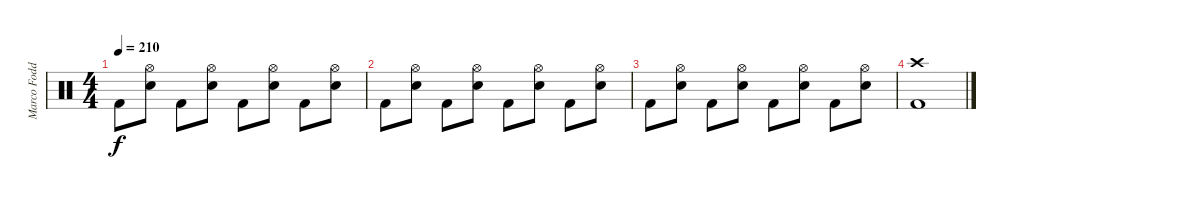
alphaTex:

\track ("Marco Foddis " "Marco Fodd") {instrument percussion}
\staff {score}
\articulation defaults
\ts (4 4)
\tempo 210
\clef neutral
\ks c "Kick (hit) 2".8{dy f}
("Hi-Hat (open)" "Electric Snare (hit)").8 "Kick (hit) 2".8 ("Hi-Hat (open)" "Electric Snare (hit)").8 "Kick (hit) 2".8 ("Hi-Hat (open)" "Electric Snare (hit)").8 "Kick (hit) 2".8 ("Hi-Hat (open)" "Electric Snare (hit)").8 |
"Kick (hit) 2".8 ("Hi-Hat (open)" "Electric Snare (hit)").8 "Kick (hit) 2".8 ("Hi-Hat (open)" "Electric Snare (hit)").8 "Kick (hit) 2".8 ("Hi-Hat (open)" "Electric Snare (hit)").8 "Kick (hit) 2".8 ("Hi-Hat (open)" "Electric Snare (hit)").8 |
"Kick (hit) 2".8 ("Hi-Hat (open)" "Electric Snare (hit)").8 "Kick (hit) 2".8 ("Hi-Hat (open)" "Electric Snare (hit)").8 "Kick (hit) 2".8 ("Hi-Hat (open)" "Electric Snare (hit)").8 "Kick (hit) 2".8 ("Hi-Hat (open)" "Electric Snare (hit)").8 |
("Crash high (hit)" "Kick (hit) 2").1
